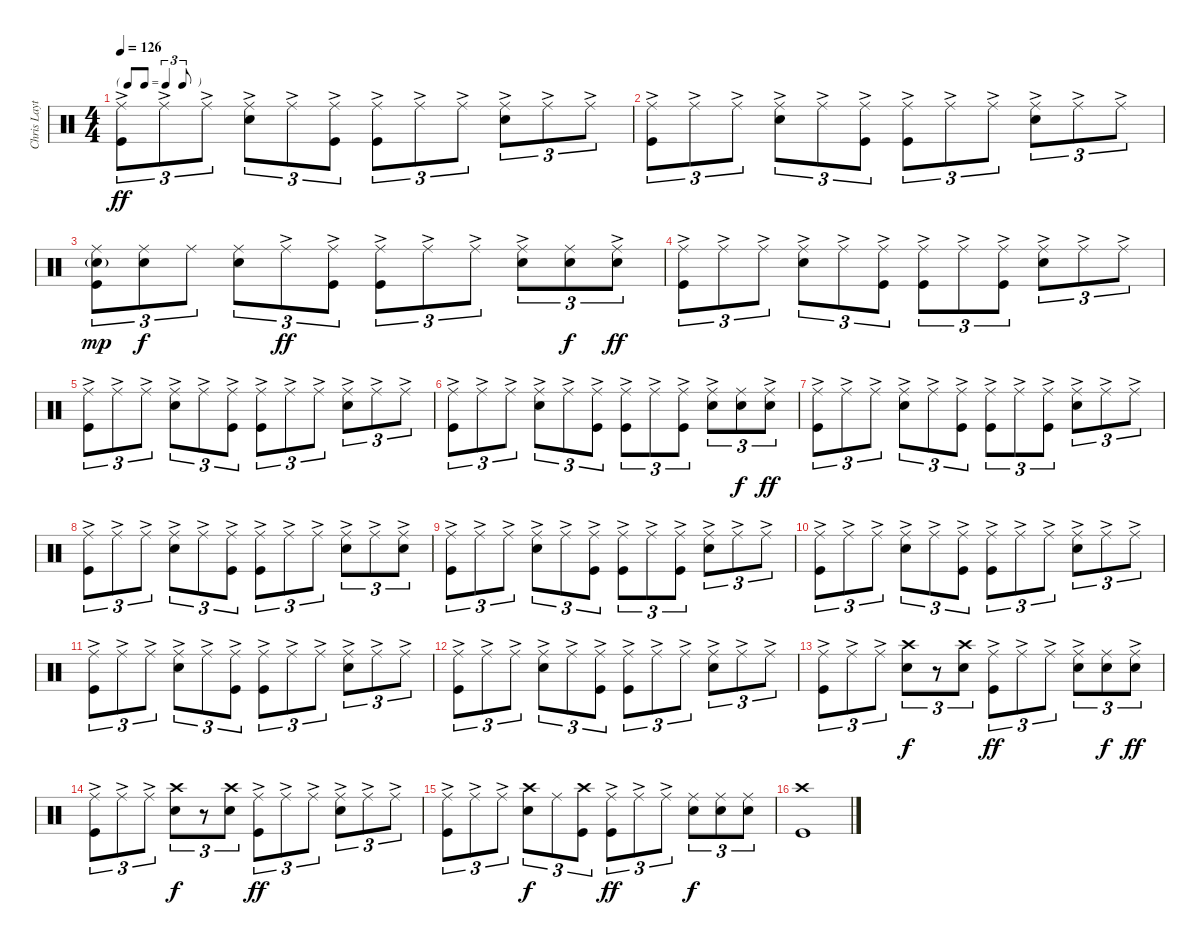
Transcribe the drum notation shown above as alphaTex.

\track ("Chris Layton" "Chris Layt") {instrument percussion}
\staff {score}
\articulation defaults
\ts (4 4)
\tf triplet8th
\tempo 126
\clef neutral
\ks c
("Ride (middle)"{ac} "Kick (hit)").8{tu (3 2) dy ff} "Ride (middle)"{ac}.8{tu (3 2)} "Ride (middle)"{ac}.8{tu (3 2)} ("Ride (middle)"{ac} "Electric Snare (hit)").8{tu (3 2)} "Ride (middle)"{ac}.8{tu (3 2)} ("Ride (middle)"{ac} "Kick (hit)").8{tu (3 2)} ("Ride (middle)"{ac} "Kick (hit)").8{tu (3 2)} "Ride (middle)"{ac}.8{tu (3 2)} "Ride (middle)"{ac}.8{tu (3 2)} ("Ride (middle)"{ac} "Electric Snare (hit)").8{tu (3 2)} "Ride (middle)"{ac}.8{tu (3 2)} "Ride (middle)"{ac}.8{tu (3 2)} |
("Ride (middle)"{ac} "Kick (hit)").8{tu (3 2)} "Ride (middle)"{ac}.8{tu (3 2)} "Ride (middle)"{ac}.8{tu (3 2)} ("Ride (middle)"{ac} "Electric Snare (hit)").8{tu (3 2)} "Ride (middle)"{ac}.8{tu (3 2)} ("Ride (middle)"{ac} "Kick (hit)").8{tu (3 2)} ("Ride (middle)"{ac} "Kick (hit)").8{tu (3 2)} "Ride (middle)"{ac}.8{tu (3 2)} "Ride (middle)"{ac}.8{tu (3 2)} ("Ride (middle)"{ac} "Electric Snare (hit)").8{tu (3 2)} "Ride (middle)"{ac}.8{tu (3 2)} "Ride (middle)"{ac}.8{tu (3 2)} |
("Ride (middle)" "Electric Snare (hit)"{g} "Kick (hit)").8{tu (3 2) dy mp} ("Ride (middle)" "Electric Snare (hit)").8{tu (3 2) dy f} "Ride (middle)".8{tu (3 2)} ("Ride (middle)" "Electric Snare (hit)").8{tu (3 2)} "Ride (middle)"{ac}.8{tu (3 2) dy ff} ("Ride (middle)"{ac} "Kick (hit)").8{tu (3 2)} ("Ride (middle)"{ac} "Kick (hit)").8{tu (3 2)} "Ride (middle)"{ac}.8{tu (3 2)} "Ride (middle)"{ac}.8{tu (3 2)} ("Ride (middle)" "Electric Snare (hit)"{ac}).8{tu (3 2)} ("Ride (middle)" "Electric Snare (hit)").8{tu (3 2) dy f} ("Ride (middle)" "Electric Snare (hit)"{ac}).8{tu (3 2) dy ff} |
("Ride (middle)"{ac} "Kick (hit)").8{tu (3 2)} "Ride (middle)"{ac}.8{tu (3 2)} "Ride (middle)"{ac}.8{tu (3 2)} ("Ride (middle)"{ac} "Electric Snare (hit)").8{tu (3 2)} "Ride (middle)"{ac}.8{tu (3 2)} ("Ride (middle)"{ac} "Kick (hit)").8{tu (3 2)} ("Ride (middle)"{ac} "Kick (hit)").8{tu (3 2)} "Ride (middle)"{ac}.8{tu (3 2)} ("Ride (middle)"{ac} "Kick (hit)").8{tu (3 2)} ("Ride (middle)"{ac} "Electric Snare (hit)").8{tu (3 2)} "Ride (middle)"{ac}.8{tu (3 2)} "Ride (middle)"{ac}.8{tu (3 2)} |
("Ride (middle)"{ac} "Kick (hit)").8{tu (3 2)} "Ride (middle)"{ac}.8{tu (3 2)} "Ride (middle)"{ac}.8{tu (3 2)} ("Ride (middle)"{ac} "Electric Snare (hit)").8{tu (3 2)} "Ride (middle)"{ac}.8{tu (3 2)} ("Ride (middle)"{ac} "Kick (hit)").8{tu (3 2)} ("Ride (middle)"{ac} "Kick (hit)").8{tu (3 2)} "Ride (middle)"{ac}.8{tu (3 2)} "Ride (middle)"{ac}.8{tu (3 2)} ("Ride (middle)"{ac} "Electric Snare (hit)").8{tu (3 2)} "Ride (middle)"{ac}.8{tu (3 2)} "Ride (middle)"{ac}.8{tu (3 2)} |
("Ride (middle)"{ac} "Kick (hit)").8{tu (3 2)} "Ride (middle)"{ac}.8{tu (3 2)} "Ride (middle)"{ac}.8{tu (3 2)} ("Ride (middle)"{ac} "Electric Snare (hit)").8{tu (3 2)} "Ride (middle)"{ac}.8{tu (3 2)} ("Ride (middle)"{ac} "Kick (hit)").8{tu (3 2)} ("Ride (middle)"{ac} "Kick (hit)").8{tu (3 2)} "Ride (middle)"{ac}.8{tu (3 2)} ("Ride (middle)"{ac} "Kick (hit)").8{tu (3 2)} ("Ride (middle)" "Electric Snare (hit)"{ac}).8{tu (3 2)} ("Ride (middle)" "Electric Snare (hit)").8{tu (3 2) dy f} ("Ride (middle)" "Electric Snare (hit)"{ac}).8{tu (3 2) dy ff} |
("Ride (middle)"{ac} "Kick (hit)").8{tu (3 2)} "Ride (middle)"{ac}.8{tu (3 2)} "Ride (middle)"{ac}.8{tu (3 2)} ("Ride (middle)"{ac} "Electric Snare (hit)").8{tu (3 2)} "Ride (middle)"{ac}.8{tu (3 2)} ("Ride (middle)"{ac} "Kick (hit)").8{tu (3 2)} ("Ride (middle)"{ac} "Kick (hit)").8{tu (3 2)} "Ride (middle)"{ac}.8{tu (3 2)} ("Ride (middle)"{ac} "Kick (hit)").8{tu (3 2)} ("Ride (middle)"{ac} "Electric Snare (hit)").8{tu (3 2)} "Ride (middle)"{ac}.8{tu (3 2)} "Ride (middle)"{ac}.8{tu (3 2)} |
("Ride (middle)"{ac} "Kick (hit)").8{tu (3 2)} "Ride (middle)"{ac}.8{tu (3 2)} "Ride (middle)"{ac}.8{tu (3 2)} ("Ride (middle)"{ac} "Electric Snare (hit)").8{tu (3 2)} "Ride (middle)"{ac}.8{tu (3 2)} ("Ride (middle)"{ac} "Kick (hit)").8{tu (3 2)} ("Ride (middle)"{ac} "Kick (hit)").8{tu (3 2)} "Ride (middle)"{ac}.8{tu (3 2)} "Ride (middle)"{ac}.8{tu (3 2)} ("Ride (middle)"{ac} "Electric Snare (hit)").8{tu (3 2)} "Ride (middle)"{ac}.8{tu (3 2)} ("Ride (middle)"{ac} "Electric Snare (hit)").8{tu (3 2)} |
("Ride (middle)"{ac} "Kick (hit)").8{tu (3 2)} "Ride (middle)"{ac}.8{tu (3 2)} "Ride (middle)"{ac}.8{tu (3 2)} ("Ride (middle)"{ac} "Electric Snare (hit)").8{tu (3 2)} "Ride (middle)"{ac}.8{tu (3 2)} ("Ride (middle)"{ac} "Kick (hit)").8{tu (3 2)} ("Ride (middle)"{ac} "Kick (hit)").8{tu (3 2)} "Ride (middle)"{ac}.8{tu (3 2)} ("Ride (middle)"{ac} "Kick (hit)").8{tu (3 2)} ("Ride (middle)"{ac} "Electric Snare (hit)").8{tu (3 2)} "Ride (middle)"{ac}.8{tu (3 2)} "Ride (middle)"{ac}.8{tu (3 2)} |
("Ride (middle)"{ac} "Kick (hit)").8{tu (3 2)} "Ride (middle)"{ac}.8{tu (3 2)} "Ride (middle)"{ac}.8{tu (3 2)} ("Ride (middle)"{ac} "Electric Snare (hit)").8{tu (3 2)} "Ride (middle)"{ac}.8{tu (3 2)} ("Ride (middle)"{ac} "Kick (hit)").8{tu (3 2)} ("Ride (middle)"{ac} "Kick (hit)").8{tu (3 2)} "Ride (middle)"{ac}.8{tu (3 2)} "Ride (middle)"{ac}.8{tu (3 2)} ("Ride (middle)"{ac} "Electric Snare (hit)").8{tu (3 2)} "Ride (middle)"{ac}.8{tu (3 2)} "Ride (middle)"{ac}.8{tu (3 2)} |
("Ride (middle)"{ac} "Kick (hit)").8{tu (3 2)} "Ride (middle)"{ac}.8{tu (3 2)} "Ride (middle)"{ac}.8{tu (3 2)} ("Ride (middle)"{ac} "Electric Snare (hit)").8{tu (3 2)} "Ride (middle)"{ac}.8{tu (3 2)} ("Ride (middle)"{ac} "Kick (hit)").8{tu (3 2)} ("Ride (middle)"{ac} "Kick (hit)").8{tu (3 2)} "Ride (middle)"{ac}.8{tu (3 2)} "Ride (middle)"{ac}.8{tu (3 2)} ("Ride (middle)"{ac} "Electric Snare (hit)").8{tu (3 2)} "Ride (middle)"{ac}.8{tu (3 2)} "Ride (middle)"{ac}.8{tu (3 2)} |
("Ride (middle)"{ac} "Kick (hit)").8{tu (3 2)} "Ride (middle)"{ac}.8{tu (3 2)} "Ride (middle)"{ac}.8{tu (3 2)} ("Ride (middle)"{ac} "Electric Snare (hit)").8{tu (3 2)} "Ride (middle)"{ac}.8{tu (3 2)} ("Ride (middle)"{ac} "Kick (hit)").8{tu (3 2)} ("Ride (middle)"{ac} "Kick (hit)").8{tu (3 2)} "Ride (middle)"{ac}.8{tu (3 2)} "Ride (middle)"{ac}.8{tu (3 2)} ("Ride (middle)"{ac} "Electric Snare (hit)").8{tu (3 2)} "Ride (middle)"{ac}.8{tu (3 2)} "Ride (middle)"{ac}.8{tu (3 2)} |
("Ride (middle)"{ac} "Kick (hit)").8{tu (3 2)} "Ride (middle)"{ac}.8{tu (3 2)} "Ride (middle)"{ac}.8{tu (3 2)} ("Crash high (hit)" "Electric Snare (hit)").8{tu (3 2) dy f} r.8{tu (3 2)} ("Crash high (hit)" "Electric Snare (hit)").8{tu (3 2)} ("Ride (middle)"{ac} "Kick (hit)").8{tu (3 2) dy ff} "Ride (middle)"{ac}.8{tu (3 2)} "Ride (middle)"{ac}.8{tu (3 2)} ("Ride (middle)" "Electric Snare (hit)"{ac}).8{tu (3 2)} ("Ride (middle)" "Electric Snare (hit)").8{tu (3 2) dy f} ("Ride (middle)" "Electric Snare (hit)"{ac}).8{tu (3 2) dy ff} |
("Ride (middle)"{ac} "Kick (hit)").8{tu (3 2)} "Ride (middle)"{ac}.8{tu (3 2)} "Ride (middle)"{ac}.8{tu (3 2)} ("Crash high (hit)" "Electric Snare (hit)").8{tu (3 2) dy f} r.8{tu (3 2)} ("Crash high (hit)" "Electric Snare (hit)").8{tu (3 2)} ("Ride (middle)"{ac} "Kick (hit)").8{tu (3 2) dy ff} "Ride (middle)"{ac}.8{tu (3 2)} "Ride (middle)"{ac}.8{tu (3 2)} ("Ride (middle)"{ac} "Electric Snare (hit)").8{tu (3 2)} "Ride (middle)"{ac}.8{tu (3 2)} "Ride (middle)"{ac}.8{tu (3 2)} |
("Ride (middle)"{ac} "Kick (hit)").8{tu (3 2)} "Ride (middle)"{ac}.8{tu (3 2)} "Ride (middle)"{ac}.8{tu (3 2)} ("Crash high (hit)" "Electric Snare (hit)").8{tu (3 2) dy f} "Ride (middle)".8{tu (3 2)} ("Crash high (hit)" "Kick (hit)").8{tu (3 2)} ("Ride (middle)"{ac} "Kick (hit)").8{tu (3 2) dy ff} "Ride (middle)"{ac}.8{tu (3 2)} "Ride (middle)"{ac}.8{tu (3 2)} ("Ride (middle)" "Electric Snare (hit)").8{tu (3 2) dy f} ("Ride (middle)" "Electric Snare (hit)").8{tu (3 2)} ("Ride (middle)" "Electric Snare (hit)").8{tu (3 2)} |
("Crash high (hit)" "Kick (hit)").1
